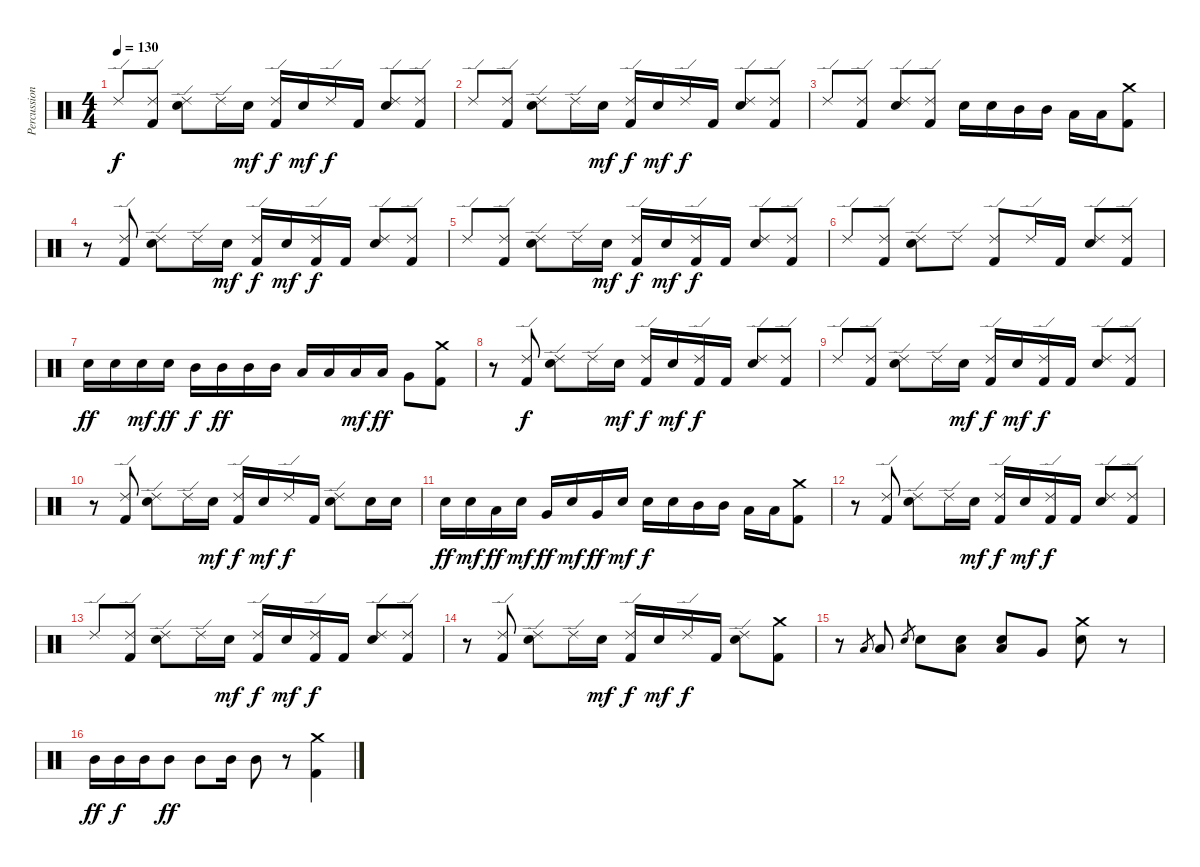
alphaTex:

\track ("Percussion" "Percussion") {instrument percussion}
\staff {score}
\articulation defaults
\ts (4 4)
\tempo 130
\clef neutral
\ks c "Ride (edge) 2".8{dy f}
("Kick (hit) 2" "Ride (edge) 2").8 ("Electric Snare (hit)" "Ride (edge) 2").8 "Ride (edge) 2".16 "Electric Snare (hit)".16{dy mf} ("Kick (hit) 2" "Ride (edge) 2").16{dy f} "Electric Snare (hit)".16{dy mf} "Ride (edge) 2".16{dy f} "Kick (hit) 2".16 ("Electric Snare (hit)" "Ride (edge) 2").8 ("Kick (hit) 2" "Ride (edge) 2").8 |
"Ride (edge) 2".8 ("Kick (hit) 2" "Ride (edge) 2").8 ("Electric Snare (hit)" "Ride (edge) 2").8 "Ride (edge) 2".16 "Electric Snare (hit)".16{dy mf} ("Kick (hit) 2" "Ride (edge) 2").16{dy f} "Electric Snare (hit)".16{dy mf} "Ride (edge) 2".16{dy f} "Kick (hit) 2".16 ("Electric Snare (hit)" "Ride (edge) 2").8 ("Kick (hit) 2" "Ride (edge) 2").8 |
"Ride (edge) 2".8 ("Kick (hit) 2" "Ride (edge) 2").8 ("Electric Snare (hit)" "Ride (edge) 2").8 ("Kick (hit) 2" "Ride (edge) 2").8 "Electric Snare (hit)".16 "Electric Snare (hit)".16 "Mid Tom (hit)".16 "Mid Tom (hit)".16 "Low Tom (hit)".16 "Low Tom (hit)".16 ("Kick (hit) 2" "Crash medium (hit)").8 |
r.8 ("Kick (hit) 2" "Ride (edge) 2").8 ("Electric Snare (hit)" "Ride (edge) 2").8 "Ride (edge) 2".16 "Electric Snare (hit)".16{dy mf} ("Kick (hit) 2" "Ride (edge) 2").16{dy f} "Electric Snare (hit)".16{dy mf} ("Kick (hit) 2" "Ride (edge) 2").16{dy f} "Kick (hit) 2".16 ("Electric Snare (hit)" "Ride (edge) 2").8 ("Kick (hit) 2" "Ride (edge) 2").8 |
"Ride (edge) 2".8 ("Kick (hit) 2" "Ride (edge) 2").8 ("Electric Snare (hit)" "Ride (edge) 2").8 "Ride (edge) 2".16 "Electric Snare (hit)".16{dy mf} ("Kick (hit) 2" "Ride (edge) 2").16{dy f} "Electric Snare (hit)".16{dy mf} ("Kick (hit) 2" "Ride (edge) 2").16{dy f} "Kick (hit) 2".16 ("Electric Snare (hit)" "Ride (edge) 2").8 ("Kick (hit) 2" "Ride (edge) 2").8 |
"Ride (edge) 2".8 ("Kick (hit) 2" "Ride (edge) 2").8 ("Electric Snare (hit)" "Ride (edge) 2").8 "Ride (edge) 2".8 ("Kick (hit) 2" "Ride (edge) 2").8 "Ride (edge) 2".16 "Kick (hit) 2".16 ("Electric Snare (hit)" "Ride (edge) 2").8 ("Kick (hit) 2" "Ride (edge) 2").8 |
"Electric Snare (hit)".16{dy ff} "Electric Snare (hit)".16 "Electric Snare (hit)".16{dy mf} "Electric Snare (hit)".16{dy ff} "Mid Tom (hit)".16{dy f} "Mid Tom (hit)".16{dy ff} "Mid Tom (hit)".16 "Mid Tom (hit)".16 "Low Tom (hit)".16 "Low Tom (hit)".16 "Low Tom (hit)".16{dy mf} "Low Tom (hit)".16{dy ff} "Very Low Tom (hit)".8 ("Kick (hit) 2" "Crash medium (hit)").8 |
r.8 ("Kick (hit) 2" "Ride (edge) 2").8{dy f} ("Electric Snare (hit)" "Ride (edge) 2").8 "Ride (edge) 2".16 "Electric Snare (hit)".16{dy mf} ("Kick (hit) 2" "Ride (edge) 2").16{dy f} "Electric Snare (hit)".16{dy mf} ("Kick (hit) 2" "Ride (edge) 2").16{dy f} "Kick (hit) 2".16 ("Electric Snare (hit)" "Ride (edge) 2").8 ("Kick (hit) 2" "Ride (edge) 2").8 |
"Ride (edge) 2".8 ("Kick (hit) 2" "Ride (edge) 2").8 ("Electric Snare (hit)" "Ride (edge) 2").8 "Ride (edge) 2".16 "Electric Snare (hit)".16{dy mf} ("Kick (hit) 2" "Ride (edge) 2").16{dy f} "Electric Snare (hit)".16{dy mf} ("Kick (hit) 2" "Ride (edge) 2").16{dy f} "Kick (hit) 2".16 ("Electric Snare (hit)" "Ride (edge) 2").8 ("Kick (hit) 2" "Ride (edge) 2").8 |
r.8 ("Kick (hit) 2" "Ride (edge) 2").8 ("Electric Snare (hit)" "Ride (edge) 2").8 "Ride (edge) 2".16 "Electric Snare (hit)".16{dy mf} ("Kick (hit) 2" "Ride (edge) 2").16{dy f} "Electric Snare (hit)".16{dy mf} "Ride (edge) 2".16{dy f} "Kick (hit) 2".16 ("Electric Snare (hit)" "Ride (edge) 2").8 "Electric Snare (hit)".16 "Electric Snare (hit)".16 |
"Electric Snare (hit)".16{dy ff} "Electric Snare (hit)".16{dy mf} "Low Tom (hit)".16{dy ff} "Electric Snare (hit)".16{dy mf} "Very Low Tom (hit)".16{dy ff} "Electric Snare (hit)".16{dy mf} "Very Low Tom (hit)".16{dy ff} "Electric Snare (hit)".16{dy mf} "Electric Snare (hit)".16{dy f} "Electric Snare (hit)".16 "Mid Tom (hit)".16 "Mid Tom (hit)".16 "Low Tom (hit)".16 "Low Tom (hit)".16 ("Kick (hit) 2" "Crash medium (hit)").8 |
r.8 ("Kick (hit) 2" "Ride (edge) 2").8 ("Electric Snare (hit)" "Ride (edge) 2").8 "Ride (edge) 2".16 "Electric Snare (hit)".16{dy mf} ("Kick (hit) 2" "Ride (edge) 2").16{dy f} "Electric Snare (hit)".16{dy mf} ("Kick (hit) 2" "Ride (edge) 2").16{dy f} "Kick (hit) 2".16 ("Electric Snare (hit)" "Ride (edge) 2").8 ("Kick (hit) 2" "Ride (edge) 2").8 |
"Ride (edge) 2".8 ("Kick (hit) 2" "Ride (edge) 2").8 ("Electric Snare (hit)" "Ride (edge) 2").8 "Ride (edge) 2".16 "Electric Snare (hit)".16{dy mf} ("Kick (hit) 2" "Ride (edge) 2").16{dy f} "Electric Snare (hit)".16{dy mf} ("Kick (hit) 2" "Ride (edge) 2").16{dy f} "Kick (hit) 2".16 ("Electric Snare (hit)" "Ride (edge) 2").8 ("Kick (hit) 2" "Ride (edge) 2").8 |
r.8 ("Kick (hit) 2" "Ride (edge) 2").8 ("Electric Snare (hit)" "Ride (edge) 2").8 "Ride (edge) 2".16 "Electric Snare (hit)".16{dy mf} ("Kick (hit) 2" "Ride (edge) 2").16{dy f} "Electric Snare (hit)".16{dy mf} "Ride (edge) 2".16{dy f} "Kick (hit) 2".16 ("Electric Snare (hit)" "Ride (edge) 2").8 ("Kick (hit) 2" "Crash medium (hit)").8 |
r.8 "Low Tom (hit)".8{gr} "Low Tom (hit)".8 "Electric Snare (hit)".8{gr} "Electric Snare (hit)".8 ("Electric Snare (hit)" "Low Tom (hit)").8 ("Electric Snare (hit)" "Low Tom (hit)").8 "Very Low Tom (hit)".8 ("Electric Snare (hit)" "Crash medium (hit)").8 r.8 |
"Mid Tom (hit)".16{dy ff} "Mid Tom (hit)".16{dy f} "Mid Tom (hit)".16 "Mid Tom (hit)".8{dy ff} "Mid Tom (hit)".8 "Mid Tom (hit)".16 "Mid Tom (hit)".8 r.8 ("Kick (hit) 2" "Crash medium (hit)").4
